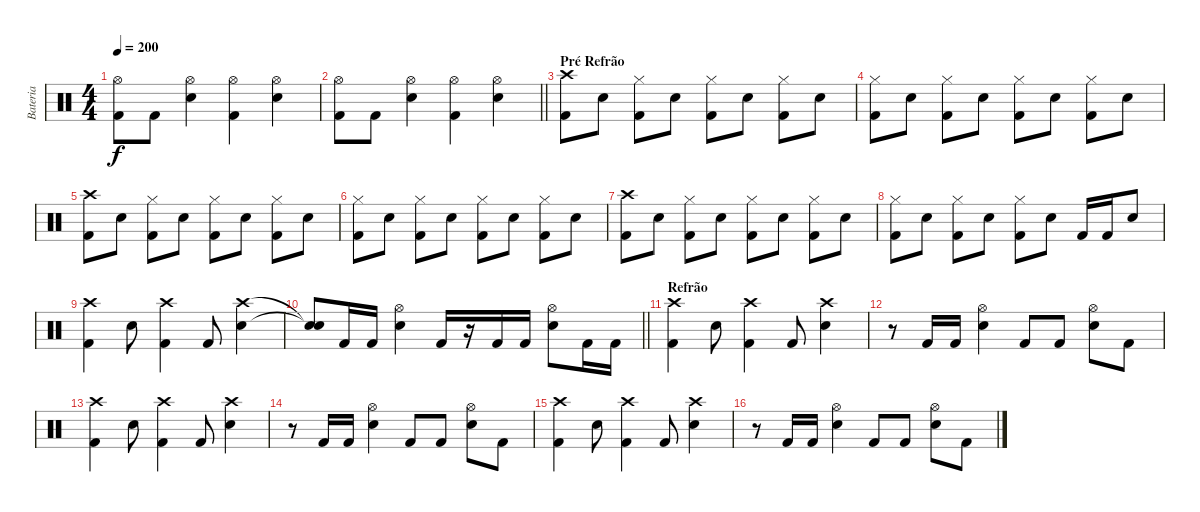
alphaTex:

\track ("Bateria" "Bateria") {instrument percussion}
\staff {score}
\articulation defaults
\ts (4 4)
\tempo 200
\clef neutral
\ks c
("Hi-Hat (open)" "Kick (hit) 2").8{dy f} "Kick (hit) 2".8 ("Hi-Hat (open)" "Electric Snare (hit)").4 ("Hi-Hat (open)" "Kick (hit) 2").4 ("Hi-Hat (open)" "Electric Snare (hit)").4 |
\barLineRight lightlight
("Hi-Hat (open)" "Kick (hit) 2").8 "Kick (hit) 2".8 ("Hi-Hat (open)" "Electric Snare (hit)").4 ("Hi-Hat (open)" "Kick (hit) 2").4 ("Hi-Hat (open)" "Electric Snare (hit)").4 |
\section ("" "Pré Refrão")
("Crash high (hit)" "Kick (hit) 2").8 "Electric Snare (hit)".8 ("Hi-Hat (closed)" "Kick (hit) 2").8 "Electric Snare (hit)".8 ("Hi-Hat (closed)" "Kick (hit) 2").8 "Electric Snare (hit)".8 ("Hi-Hat (closed)" "Kick (hit) 2").8 "Electric Snare (hit)".8 |
("Hi-Hat (closed)" "Kick (hit) 2").8 "Electric Snare (hit)".8 ("Hi-Hat (closed)" "Kick (hit) 2").8 "Electric Snare (hit)".8 ("Hi-Hat (closed)" "Kick (hit) 2").8 "Electric Snare (hit)".8 ("Hi-Hat (closed)" "Kick (hit) 2").8 "Electric Snare (hit)".8 |
("Crash high (hit)" "Kick (hit) 2").8 "Electric Snare (hit)".8 ("Hi-Hat (closed)" "Kick (hit) 2").8 "Electric Snare (hit)".8 ("Hi-Hat (closed)" "Kick (hit) 2").8 "Electric Snare (hit)".8 ("Hi-Hat (closed)" "Kick (hit) 2").8 "Electric Snare (hit)".8 |
("Hi-Hat (closed)" "Kick (hit) 2").8 "Electric Snare (hit)".8 ("Hi-Hat (closed)" "Kick (hit) 2").8 "Electric Snare (hit)".8 ("Hi-Hat (closed)" "Kick (hit) 2").8 "Electric Snare (hit)".8 ("Hi-Hat (closed)" "Kick (hit) 2").8 "Electric Snare (hit)".8 |
("Crash high (hit)" "Kick (hit) 2").8 "Electric Snare (hit)".8 ("Hi-Hat (closed)" "Kick (hit) 2").8 "Electric Snare (hit)".8 ("Hi-Hat (closed)" "Kick (hit) 2").8 "Electric Snare (hit)".8 ("Hi-Hat (closed)" "Kick (hit) 2").8 "Electric Snare (hit)".8 |
("Hi-Hat (closed)" "Kick (hit) 2").8 "Electric Snare (hit)".8 ("Hi-Hat (closed)" "Kick (hit) 2").8 "Electric Snare (hit)".8 ("Hi-Hat (closed)" "Kick (hit) 2").8 "Electric Snare (hit)".8 "Kick (hit) 2".16 "Kick (hit) 2".16 "Electric Snare (hit)".8 |
("Crash high (hit)" "Kick (hit) 2").4 "Electric Snare (hit)".8 ("Crash high (hit)" "Kick (hit) 2").4 "Kick (hit) 2".8 ("Crash high (hit)" "Electric Snare (hit)").4 |
\barLineRight lightlight
("Snare (hit)"{t} "Snare (hit)"{t}).8 "Kick (hit) 2".16 "Kick (hit) 2".16 ("Hi-Hat (open)" "Electric Snare (hit)").4 "Kick (hit) 2".16 r.16 "Kick (hit) 2".16 "Kick (hit) 2".16 ("Hi-Hat (open)" "Electric Snare (hit)").8 "Kick (hit) 2".16 "Kick (hit) 2".16 |
\section ("" "Refrão")
("Crash high (hit)" "Kick (hit) 2").4 "Electric Snare (hit)".8 ("Crash high (hit)" "Kick (hit) 2").4 "Kick (hit) 2".8 ("Crash high (hit)" "Electric Snare (hit)").4 |
r.8 "Kick (hit) 2".16 "Kick (hit) 2".16 ("Hi-Hat (open)" "Electric Snare (hit)").4 "Kick (hit) 2".8 "Kick (hit) 2".8 ("Hi-Hat (open)" "Electric Snare (hit)").8 "Kick (hit) 2".8 |
("Crash high (hit)" "Kick (hit) 2").4 "Electric Snare (hit)".8 ("Crash high (hit)" "Kick (hit) 2").4 "Kick (hit) 2".8 ("Crash high (hit)" "Electric Snare (hit)").4 |
r.8 "Kick (hit) 2".16 "Kick (hit) 2".16 ("Hi-Hat (open)" "Electric Snare (hit)").4 "Kick (hit) 2".8 "Kick (hit) 2".8 ("Hi-Hat (open)" "Electric Snare (hit)").8 "Kick (hit) 2".8 |
("Crash high (hit)" "Kick (hit) 2").4 "Electric Snare (hit)".8 ("Crash high (hit)" "Kick (hit) 2").4 "Kick (hit) 2".8 ("Crash high (hit)" "Electric Snare (hit)").4 |
r.8 "Kick (hit) 2".16 "Kick (hit) 2".16 ("Hi-Hat (open)" "Electric Snare (hit)").4 "Kick (hit) 2".8 "Kick (hit) 2".8 ("Hi-Hat (open)" "Electric Snare (hit)").8 "Kick (hit) 2".8
